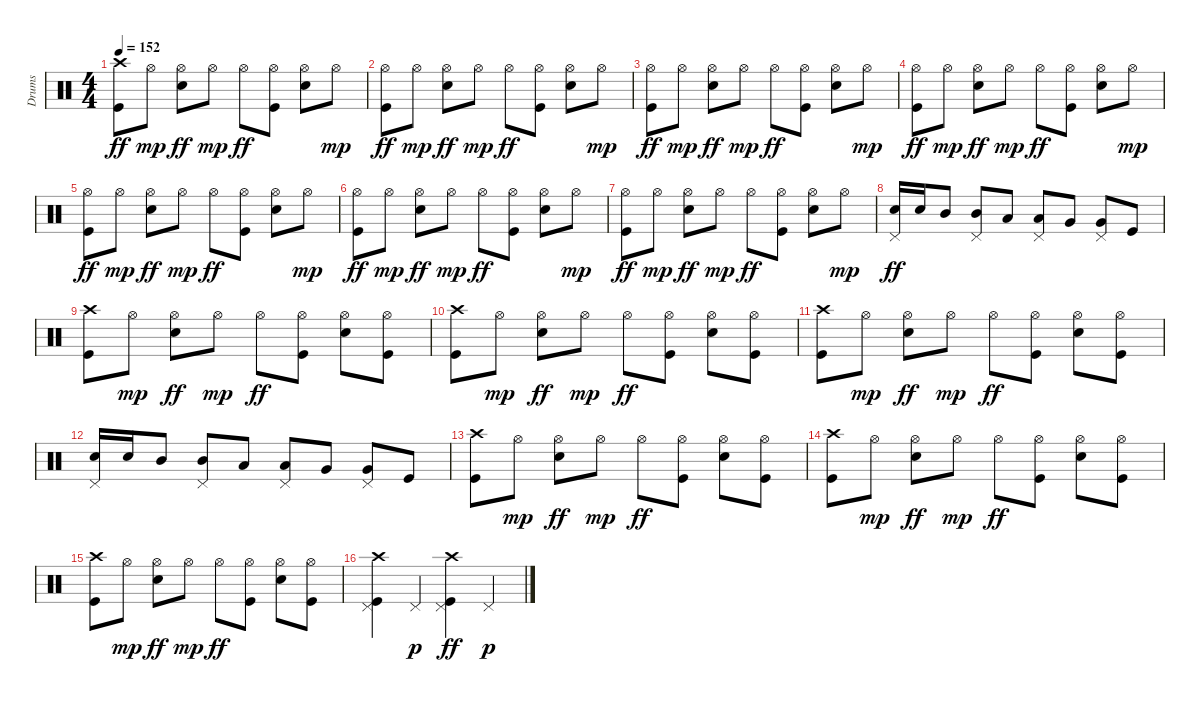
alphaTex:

\track ("Drums" "Drums") {instrument percussion}
\staff {score}
\articulation defaults
\ts (4 4)
\tempo 152
\clef neutral
\ks c
("Crash high (hit)" "Kick (hit)").8{dy ff} "Hi-Hat (open)".8{dy mp} ("Hi-Hat (open)" "Snare (hit) 2").8{dy ff} "Hi-Hat (open)".8{dy mp} "Hi-Hat (open)".8{dy ff} ("Hi-Hat (open)" "Kick (hit)").8 ("Hi-Hat (open)" "Snare (hit) 2").8 "Hi-Hat (open)".8{dy mp} |
("Hi-Hat (open)" "Kick (hit)").8{dy ff} "Hi-Hat (open)".8{dy mp} ("Hi-Hat (open)" "Snare (hit) 2").8{dy ff} "Hi-Hat (open)".8{dy mp} "Hi-Hat (open)".8{dy ff} ("Hi-Hat (open)" "Kick (hit)").8 ("Hi-Hat (open)" "Snare (hit) 2").8 "Hi-Hat (open)".8{dy mp} |
("Hi-Hat (open)" "Kick (hit)").8{dy ff} "Hi-Hat (open)".8{dy mp} ("Hi-Hat (open)" "Snare (hit) 2").8{dy ff} "Hi-Hat (open)".8{dy mp} "Hi-Hat (open)".8{dy ff} ("Hi-Hat (open)" "Kick (hit)").8 ("Hi-Hat (open)" "Snare (hit) 2").8 "Hi-Hat (open)".8{dy mp} |
("Hi-Hat (open)" "Kick (hit)").8{dy ff} "Hi-Hat (open)".8{dy mp} ("Hi-Hat (open)" "Snare (hit) 2").8{dy ff} "Hi-Hat (open)".8{dy mp} "Hi-Hat (open)".8{dy ff} ("Hi-Hat (open)" "Kick (hit)").8 ("Hi-Hat (open)" "Snare (hit) 2").8 "Hi-Hat (open)".8{dy mp} |
("Hi-Hat (open)" "Kick (hit)").8{dy ff} "Hi-Hat (open)".8{dy mp} ("Hi-Hat (open)" "Snare (hit) 2").8{dy ff} "Hi-Hat (open)".8{dy mp} "Hi-Hat (open)".8{dy ff} ("Hi-Hat (open)" "Kick (hit)").8 ("Hi-Hat (open)" "Snare (hit) 2").8 "Hi-Hat (open)".8{dy mp} |
("Hi-Hat (open)" "Kick (hit)").8{dy ff} "Hi-Hat (open)".8{dy mp} ("Hi-Hat (open)" "Snare (hit) 2").8{dy ff} "Hi-Hat (open)".8{dy mp} "Hi-Hat (open)".8{dy ff} ("Hi-Hat (open)" "Kick (hit)").8 ("Hi-Hat (open)" "Snare (hit) 2").8 "Hi-Hat (open)".8{dy mp} |
("Hi-Hat (open)" "Kick (hit)").8{dy ff} "Hi-Hat (open)".8{dy mp} ("Hi-Hat (open)" "Snare (hit) 2").8{dy ff} "Hi-Hat (open)".8{dy mp} "Hi-Hat (open)".8{dy ff} ("Hi-Hat (open)" "Kick (hit)").8 ("Hi-Hat (open)" "Snare (hit) 2").8 "Hi-Hat (open)".8{dy mp} |
("Pedal Hi-Hat (hit)" "Snare (hit) 2").16{dy ff} "Snare (hit) 2".16 "Mid Tom (hit)".8 ("Pedal Hi-Hat (hit)" "Mid Tom (hit)").8 "Low Tom (hit)".8 ("Pedal Hi-Hat (hit)" "Low Tom (hit)").8 "Very Low Tom (hit)".8 ("Pedal Hi-Hat (hit)" "Very Low Tom (hit)").8 "Kick (hit)".8 |
("Crash high (hit)" "Kick (hit)").8 "Hi-Hat (open)".8{dy mp} ("Hi-Hat (open)" "Snare (hit) 2").8{dy ff} "Hi-Hat (open)".8{dy mp} "Hi-Hat (open)".8{dy ff} ("Hi-Hat (open)" "Kick (hit)").8 ("Hi-Hat (open)" "Snare (hit) 2").8 ("Hi-Hat (open)" "Kick (hit)").8 |
("Crash high (hit)" "Kick (hit)").8 "Hi-Hat (open)".8{dy mp} ("Hi-Hat (open)" "Snare (hit) 2").8{dy ff} "Hi-Hat (open)".8{dy mp} "Hi-Hat (open)".8{dy ff} ("Hi-Hat (open)" "Kick (hit)").8 ("Hi-Hat (open)" "Snare (hit) 2").8 ("Hi-Hat (open)" "Kick (hit)").8 |
("Crash high (hit)" "Kick (hit)").8 "Hi-Hat (open)".8{dy mp} ("Hi-Hat (open)" "Snare (hit) 2").8{dy ff} "Hi-Hat (open)".8{dy mp} "Hi-Hat (open)".8{dy ff} ("Hi-Hat (open)" "Kick (hit)").8 ("Hi-Hat (open)" "Snare (hit) 2").8 ("Hi-Hat (open)" "Kick (hit)").8 |
("Pedal Hi-Hat (hit)" "Snare (hit) 2").16 "Snare (hit) 2".16 "Mid Tom (hit)".8 ("Pedal Hi-Hat (hit)" "Mid Tom (hit)").8 "Low Tom (hit)".8 ("Pedal Hi-Hat (hit)" "Low Tom (hit)").8 "Very Low Tom (hit)".8 ("Pedal Hi-Hat (hit)" "Very Low Tom (hit)").8 "Kick (hit)".8 |
("Crash high (hit)" "Kick (hit)").8 "Hi-Hat (open)".8{dy mp} ("Hi-Hat (open)" "Snare (hit) 2").8{dy ff} "Hi-Hat (open)".8{dy mp} "Hi-Hat (open)".8{dy ff} ("Hi-Hat (open)" "Kick (hit)").8 ("Hi-Hat (open)" "Snare (hit) 2").8 ("Hi-Hat (open)" "Kick (hit)").8 |
("Crash high (hit)" "Kick (hit)").8 "Hi-Hat (open)".8{dy mp} ("Hi-Hat (open)" "Snare (hit) 2").8{dy ff} "Hi-Hat (open)".8{dy mp} "Hi-Hat (open)".8{dy ff} ("Hi-Hat (open)" "Kick (hit)").8 ("Hi-Hat (open)" "Snare (hit) 2").8 ("Hi-Hat (open)" "Kick (hit)").8 |
("Crash high (hit)" "Kick (hit)").8 "Hi-Hat (open)".8{dy mp} ("Hi-Hat (open)" "Snare (hit) 2").8{dy ff} "Hi-Hat (open)".8{dy mp} "Hi-Hat (open)".8{dy ff} ("Hi-Hat (open)" "Kick (hit)").8 ("Hi-Hat (open)" "Snare (hit) 2").8 ("Hi-Hat (open)" "Kick (hit)").8 |
("Crash high (hit)" "Pedal Hi-Hat (hit)" "Kick (hit)").4 "Pedal Hi-Hat (hit)".4{dy p} ("Crash high (hit)" "Pedal Hi-Hat (hit)" "Kick (hit)").4{dy ff} "Pedal Hi-Hat (hit)".4{dy p}
